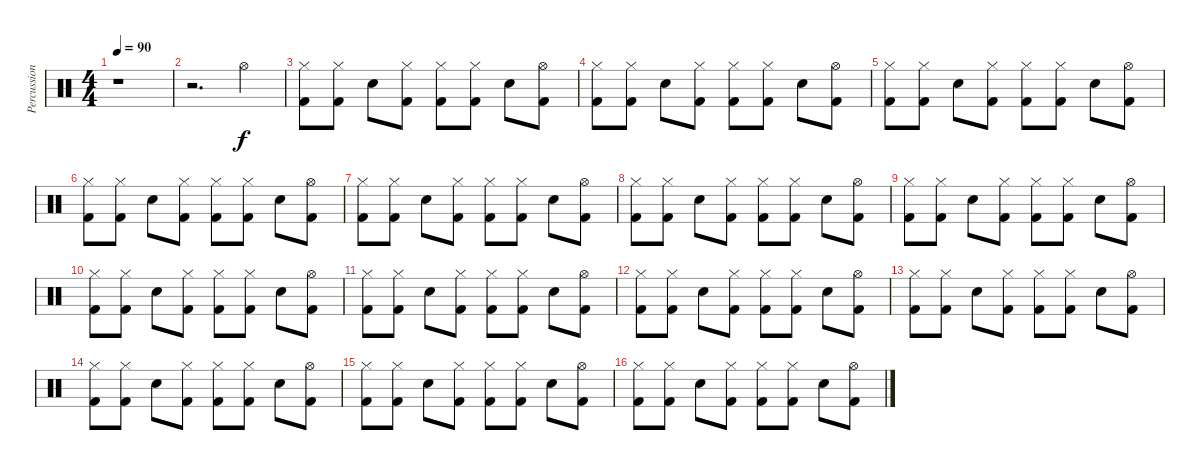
\track ("Percussions" "Percussion") {instrument percussion}
\staff {score}
\articulation defaults
\ts (4 4)
\tempo 90
\clef neutral
\ks c
r.1{dy f} |
r.2{d} "Hi-Hat (open)".4 |
("Hi-Hat (closed)" "Kick (hit) 2").8 ("Hi-Hat (closed)" "Kick (hit) 2").8 "Snare (hit) 2".8 ("Hi-Hat (closed)" "Kick (hit) 2").8 ("Hi-Hat (closed)" "Kick (hit) 2").8 ("Hi-Hat (closed)" "Kick (hit) 2").8 "Snare (hit) 2".8 ("Hi-Hat (open)" "Kick (hit) 2").8 |
("Hi-Hat (closed)" "Kick (hit) 2").8 ("Hi-Hat (closed)" "Kick (hit) 2").8 "Snare (hit) 2".8 ("Hi-Hat (closed)" "Kick (hit) 2").8 ("Hi-Hat (closed)" "Kick (hit) 2").8 ("Hi-Hat (closed)" "Kick (hit) 2").8 "Snare (hit) 2".8 ("Hi-Hat (open)" "Kick (hit) 2").8 |
("Hi-Hat (closed)" "Kick (hit) 2").8 ("Hi-Hat (closed)" "Kick (hit) 2").8 "Snare (hit) 2".8 ("Hi-Hat (closed)" "Kick (hit) 2").8 ("Hi-Hat (closed)" "Kick (hit) 2").8 ("Hi-Hat (closed)" "Kick (hit) 2").8 "Snare (hit) 2".8 ("Hi-Hat (open)" "Kick (hit) 2").8 |
("Hi-Hat (closed)" "Kick (hit) 2").8 ("Hi-Hat (closed)" "Kick (hit) 2").8 "Snare (hit) 2".8 ("Hi-Hat (closed)" "Kick (hit) 2").8 ("Hi-Hat (closed)" "Kick (hit) 2").8 ("Hi-Hat (closed)" "Kick (hit) 2").8 "Snare (hit) 2".8 ("Hi-Hat (open)" "Kick (hit) 2").8 |
("Hi-Hat (closed)" "Kick (hit) 2").8 ("Hi-Hat (closed)" "Kick (hit) 2").8 "Snare (hit) 2".8 ("Hi-Hat (closed)" "Kick (hit) 2").8 ("Hi-Hat (closed)" "Kick (hit) 2").8 ("Hi-Hat (closed)" "Kick (hit) 2").8 "Snare (hit) 2".8 ("Hi-Hat (open)" "Kick (hit) 2").8 |
("Hi-Hat (closed)" "Kick (hit) 2").8 ("Hi-Hat (closed)" "Kick (hit) 2").8 "Snare (hit) 2".8 ("Hi-Hat (closed)" "Kick (hit) 2").8 ("Hi-Hat (closed)" "Kick (hit) 2").8 ("Hi-Hat (closed)" "Kick (hit) 2").8 "Snare (hit) 2".8 ("Hi-Hat (open)" "Kick (hit) 2").8 |
("Hi-Hat (closed)" "Kick (hit) 2").8 ("Hi-Hat (closed)" "Kick (hit) 2").8 "Snare (hit) 2".8 ("Hi-Hat (closed)" "Kick (hit) 2").8 ("Hi-Hat (closed)" "Kick (hit) 2").8 ("Hi-Hat (closed)" "Kick (hit) 2").8 "Snare (hit) 2".8 ("Hi-Hat (open)" "Kick (hit) 2").8 |
("Hi-Hat (closed)" "Kick (hit) 2").8 ("Hi-Hat (closed)" "Kick (hit) 2").8 "Snare (hit) 2".8 ("Hi-Hat (closed)" "Kick (hit) 2").8 ("Hi-Hat (closed)" "Kick (hit) 2").8 ("Hi-Hat (closed)" "Kick (hit) 2").8 "Snare (hit) 2".8 ("Hi-Hat (open)" "Kick (hit) 2").8 |
("Hi-Hat (closed)" "Kick (hit) 2").8 ("Hi-Hat (closed)" "Kick (hit) 2").8 "Snare (hit) 2".8 ("Hi-Hat (closed)" "Kick (hit) 2").8 ("Hi-Hat (closed)" "Kick (hit) 2").8 ("Hi-Hat (closed)" "Kick (hit) 2").8 "Snare (hit) 2".8 ("Hi-Hat (open)" "Kick (hit) 2").8 |
("Hi-Hat (closed)" "Kick (hit) 2").8 ("Hi-Hat (closed)" "Kick (hit) 2").8 "Snare (hit) 2".8 ("Hi-Hat (closed)" "Kick (hit) 2").8 ("Hi-Hat (closed)" "Kick (hit) 2").8 ("Hi-Hat (closed)" "Kick (hit) 2").8 "Snare (hit) 2".8 ("Hi-Hat (open)" "Kick (hit) 2").8 |
("Hi-Hat (closed)" "Kick (hit) 2").8 ("Hi-Hat (closed)" "Kick (hit) 2").8 "Snare (hit) 2".8 ("Hi-Hat (closed)" "Kick (hit) 2").8 ("Hi-Hat (closed)" "Kick (hit) 2").8 ("Hi-Hat (closed)" "Kick (hit) 2").8 "Snare (hit) 2".8 ("Hi-Hat (open)" "Kick (hit) 2").8 |
("Hi-Hat (closed)" "Kick (hit) 2").8 ("Hi-Hat (closed)" "Kick (hit) 2").8 "Snare (hit) 2".8 ("Hi-Hat (closed)" "Kick (hit) 2").8 ("Hi-Hat (closed)" "Kick (hit) 2").8 ("Hi-Hat (closed)" "Kick (hit) 2").8 "Snare (hit) 2".8 ("Hi-Hat (open)" "Kick (hit) 2").8 |
("Hi-Hat (closed)" "Kick (hit) 2").8 ("Hi-Hat (closed)" "Kick (hit) 2").8 "Snare (hit) 2".8 ("Hi-Hat (closed)" "Kick (hit) 2").8 ("Hi-Hat (closed)" "Kick (hit) 2").8 ("Hi-Hat (closed)" "Kick (hit) 2").8 "Snare (hit) 2".8 ("Hi-Hat (open)" "Kick (hit) 2").8 |
("Hi-Hat (closed)" "Kick (hit) 2").8 ("Hi-Hat (closed)" "Kick (hit) 2").8 "Snare (hit) 2".8 ("Hi-Hat (closed)" "Kick (hit) 2").8 ("Hi-Hat (closed)" "Kick (hit) 2").8 ("Hi-Hat (closed)" "Kick (hit) 2").8 "Snare (hit) 2".8 ("Hi-Hat (open)" "Kick (hit) 2").8
